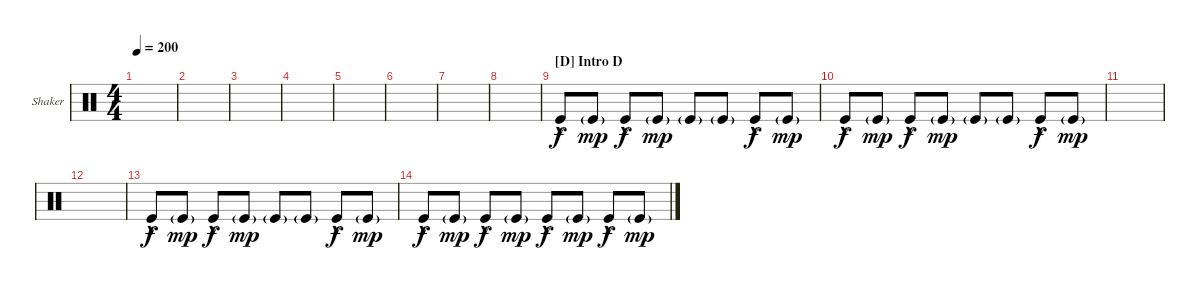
\defaultSystemsLayout 4
\bracketExtendMode groupsimilarinstruments
\firstSystemTrackNameOrientation horizontal
\otherSystemsTrackNameOrientation horizontal
\track ("Shaker" "Shaker") {instrument percussion}
\staff {score}
\articulation defaults
\ts (4 4)
\tempo 200
\clef neutral
\scale
0.333333
\ks c
|
\scale
0.333333 |
\scale
0.333333 |
\scale
0.333333 |
\scale
0.333333 |
\scale
0.333333 |
\scale
0.333333 |
\scale
0.333333 |
\section ("D" "Intro D")
\scale
0.333333 "Kick (hit)"{hac}.8{dy f} "Kick (hit)"{g}.8{dy mp} "Kick (hit)"{hac}.8{dy f} "Kick (hit)"{g}.8{dy mp} "Kick (hit)"{g}.8 "Kick (hit)"{g}.8 "Kick (hit)"{hac}.8{dy f} "Kick (hit)"{g}.8{dy mp} |
\scale
0.333333 "Kick (hit)"{hac}.8{dy f} "Kick (hit)"{g}.8{dy mp} "Kick (hit)"{hac}.8{dy f} "Kick (hit)"{g}.8{dy mp} "Kick (hit)"{g}.8 "Kick (hit)"{g}.8 "Kick (hit)"{hac}.8{dy f} "Kick (hit)"{g}.8{dy mp} |
\scale
0.333333 |
\scale
0.333333 |
\scale
0.333333 "Kick (hit)"{hac}.8{dy f} "Kick (hit)"{g}.8{dy mp} "Kick (hit)"{hac}.8{dy f} "Kick (hit)"{g}.8{dy mp} "Kick (hit)"{g}.8 "Kick (hit)"{g}.8 "Kick (hit)"{hac}.8{dy f} "Kick (hit)"{g}.8{dy mp} |
\scale
0.333333 "Kick (hit)"{hac}.8{dy f} "Kick (hit)"{g}.8{dy mp} "Kick (hit)"{hac}.8{dy f} "Kick (hit)"{g}.8{dy mp} "Kick (hit)"{hac}.8{dy f} "Kick (hit)"{g}.8{dy mp} "Kick (hit)"{hac}.8{dy f} "Kick (hit)"{g}.8{dy mp} |
\scale
0.333333 |
\scale
0.333333
